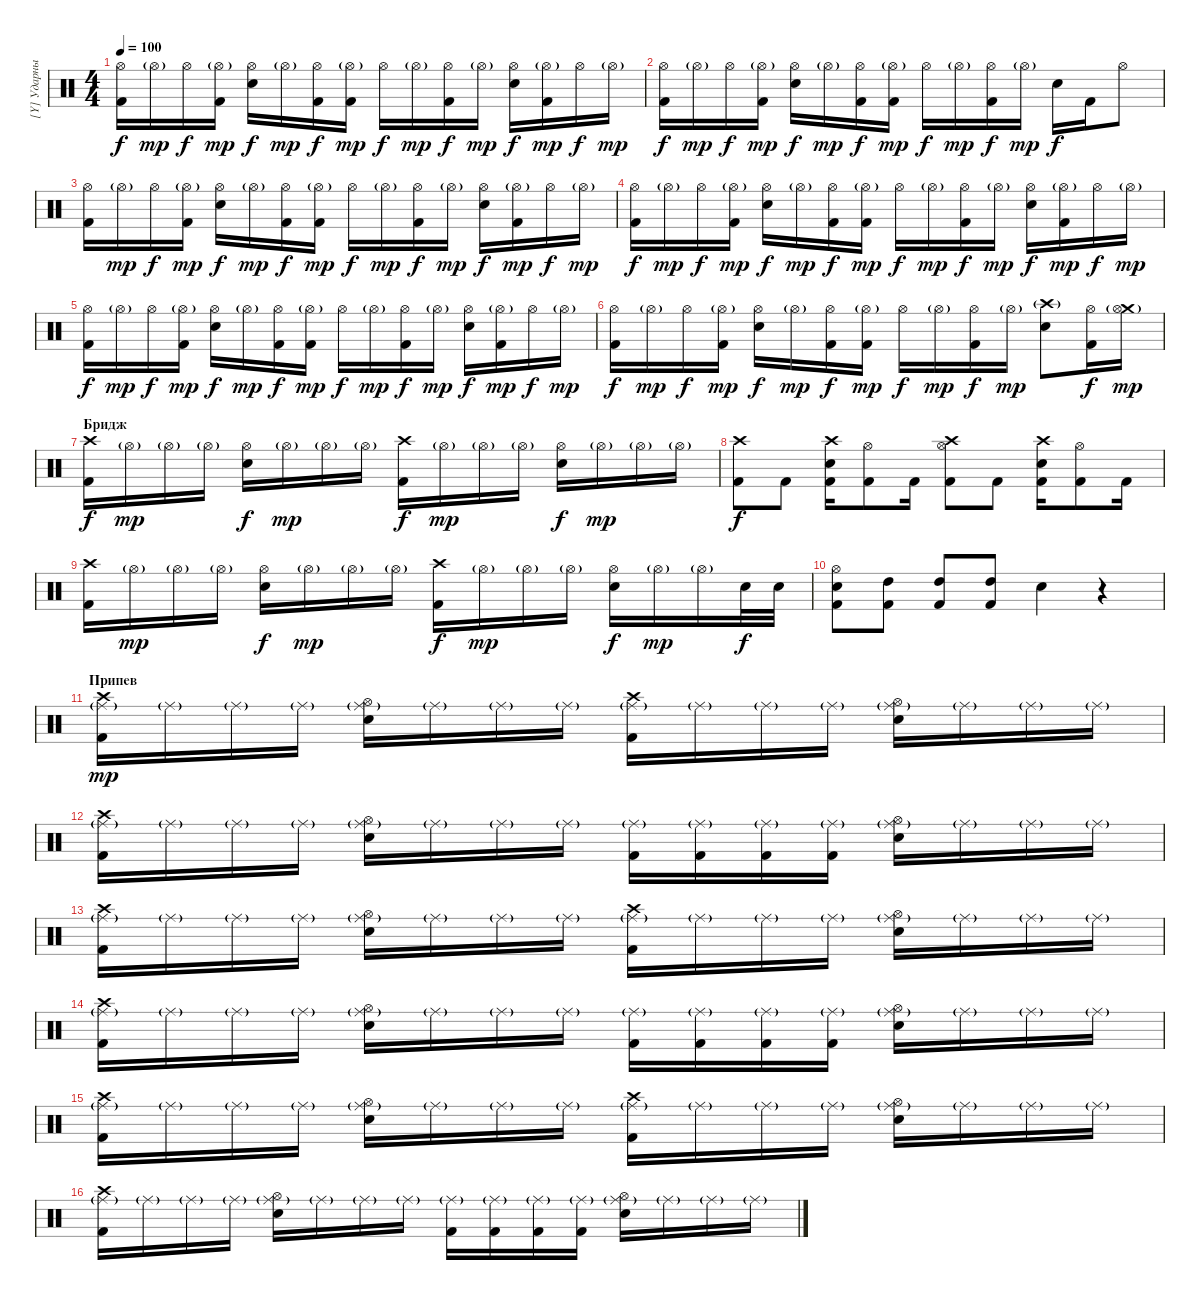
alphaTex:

\track ("[Y] Ударные [Stewart]" "[Y] Ударны") {instrument percussion}
\staff {score}
\articulation defaults
\ts (4 4)
\tempo 100
\clef neutral
\ks c
("Hi-Hat (open)" "Kick (hit) 2").16{dy f} "Hi-Hat (open)"{g}.16{dy mp} "Hi-Hat (open)".16{dy f} ("Hi-Hat (open)"{g} "Kick (hit) 2").16{dy mp} ("Hi-Hat (open)" "Electric Snare (hit)").16{dy f} "Hi-Hat (open)"{g}.16{dy mp} ("Hi-Hat (open)" "Kick (hit) 2").16{dy f} ("Hi-Hat (open)"{g} "Kick (hit) 2").16{dy mp} "Hi-Hat (open)".16{dy f} "Hi-Hat (open)"{g}.16{dy mp} ("Hi-Hat (open)" "Kick (hit) 2").16{dy f} "Hi-Hat (open)"{g}.16{dy mp} ("Hi-Hat (open)" "Electric Snare (hit)").16{dy f} ("Hi-Hat (open)"{g} "Kick (hit) 2").16{dy mp} "Hi-Hat (open)".16{dy f} "Hi-Hat (open)"{g}.16{dy mp} |
("Hi-Hat (open)" "Kick (hit) 2").16{dy f} "Hi-Hat (open)"{g}.16{dy mp} "Hi-Hat (open)".16{dy f} ("Hi-Hat (open)"{g} "Kick (hit) 2").16{dy mp} ("Hi-Hat (open)" "Electric Snare (hit)").16{dy f} "Hi-Hat (open)"{g}.16{dy mp} ("Hi-Hat (open)" "Kick (hit) 2").16{dy f} ("Hi-Hat (open)"{g} "Kick (hit) 2").16{dy mp} "Hi-Hat (open)".16{dy f} "Hi-Hat (open)"{g}.16{dy mp} ("Hi-Hat (open)" "Kick (hit) 2").16{dy f} "Hi-Hat (open)"{g}.16{dy mp} "Electric Snare (hit)".16{dy f} "Kick (hit) 2".16 "Hi-Hat (open)".8 |
("Hi-Hat (open)" "Kick (hit) 2").16 "Hi-Hat (open)"{g}.16{dy mp} "Hi-Hat (open)".16{dy f} ("Hi-Hat (open)"{g} "Kick (hit) 2").16{dy mp} ("Hi-Hat (open)" "Electric Snare (hit)").16{dy f} "Hi-Hat (open)"{g}.16{dy mp} ("Hi-Hat (open)" "Kick (hit) 2").16{dy f} ("Hi-Hat (open)"{g} "Kick (hit) 2").16{dy mp} "Hi-Hat (open)".16{dy f} "Hi-Hat (open)"{g}.16{dy mp} ("Hi-Hat (open)" "Kick (hit) 2").16{dy f} "Hi-Hat (open)"{g}.16{dy mp} ("Hi-Hat (open)" "Electric Snare (hit)").16{dy f} ("Hi-Hat (open)"{g} "Kick (hit) 2").16{dy mp} "Hi-Hat (open)".16{dy f} "Hi-Hat (open)"{g}.16{dy mp} |
("Hi-Hat (open)" "Kick (hit) 2").16{dy f} "Hi-Hat (open)"{g}.16{dy mp} "Hi-Hat (open)".16{dy f} ("Hi-Hat (open)"{g} "Kick (hit) 2").16{dy mp} ("Hi-Hat (open)" "Electric Snare (hit)").16{dy f} "Hi-Hat (open)"{g}.16{dy mp} ("Hi-Hat (open)" "Kick (hit) 2").16{dy f} ("Hi-Hat (open)"{g} "Kick (hit) 2").16{dy mp} "Hi-Hat (open)".16{dy f} "Hi-Hat (open)"{g}.16{dy mp} ("Hi-Hat (open)" "Kick (hit) 2").16{dy f} "Hi-Hat (open)"{g}.16{dy mp} ("Hi-Hat (open)" "Electric Snare (hit)").16{dy f} ("Hi-Hat (open)"{g} "Kick (hit) 2").16{dy mp} "Hi-Hat (open)".16{dy f} "Hi-Hat (open)"{g}.16{dy mp} |
("Hi-Hat (open)" "Kick (hit) 2").16{dy f} "Hi-Hat (open)"{g}.16{dy mp} "Hi-Hat (open)".16{dy f} ("Hi-Hat (open)"{g} "Kick (hit) 2").16{dy mp} ("Hi-Hat (open)" "Electric Snare (hit)").16{dy f} "Hi-Hat (open)"{g}.16{dy mp} ("Hi-Hat (open)" "Kick (hit) 2").16{dy f} ("Hi-Hat (open)"{g} "Kick (hit) 2").16{dy mp} "Hi-Hat (open)".16{dy f} "Hi-Hat (open)"{g}.16{dy mp} ("Hi-Hat (open)" "Kick (hit) 2").16{dy f} "Hi-Hat (open)"{g}.16{dy mp} ("Hi-Hat (open)" "Electric Snare (hit)").16{dy f} ("Hi-Hat (open)"{g} "Kick (hit) 2").16{dy mp} "Hi-Hat (open)".16{dy f} "Hi-Hat (open)"{g}.16{dy mp} |
("Hi-Hat (open)" "Kick (hit) 2").16{dy f} "Hi-Hat (open)"{g}.16{dy mp} "Hi-Hat (open)".16{dy f} ("Hi-Hat (open)"{g} "Kick (hit) 2").16{dy mp} ("Hi-Hat (open)" "Electric Snare (hit)").16{dy f} "Hi-Hat (open)"{g}.16{dy mp} ("Hi-Hat (open)" "Kick (hit) 2").16{dy f} ("Hi-Hat (open)"{g} "Kick (hit) 2").16{dy mp} "Hi-Hat (open)".16{dy f} "Hi-Hat (open)"{g}.16{dy mp} ("Hi-Hat (open)" "Kick (hit) 2").16{dy f} "Hi-Hat (open)"{g}.16{dy mp} ("Crash high (hit)"{g} "Electric Snare (hit)").8 ("Hi-Hat (open)" "Kick (hit) 2").16{dy f} ("Crash medium (hit)"{g} "Hi-Hat (open)"{g}).16{dy mp} |
\section ("" "Бридж")
("Crash high (hit)" "Kick (hit) 2").16{dy f} "Hi-Hat (open)"{g}.16{dy mp} "Hi-Hat (open)"{g}.16 "Hi-Hat (open)"{g}.16 ("Hi-Hat (open)" "Electric Snare (hit)").16{dy f} "Hi-Hat (open)"{g}.16{dy mp} "Hi-Hat (open)"{g}.16 "Hi-Hat (open)"{g}.16 ("Crash high (hit)" "Kick (hit) 2").16{dy f} "Hi-Hat (open)"{g}.16{dy mp} "Hi-Hat (open)"{g}.16 "Hi-Hat (open)"{g}.16 ("Hi-Hat (open)" "Electric Snare (hit)").16{dy f} "Hi-Hat (open)"{g}.16{dy mp} "Hi-Hat (open)"{g}.16 "Hi-Hat (open)"{g}.16 |
("Crash high (hit)" "Kick (hit) 2").8{dy f} "Kick (hit) 2".8 ("Crash high (hit)" "Electric Snare (hit)" "Kick (hit) 2").16 ("Hi-Hat (open)" "Kick (hit) 2").8 "Kick (hit) 2".16 ("Crash high (hit)" "Hi-Hat (open)" "Kick (hit) 2").8 "Kick (hit) 2".8 ("Crash high (hit)" "Electric Snare (hit)" "Kick (hit) 2").16 ("Hi-Hat (open)" "Kick (hit) 2").8 "Kick (hit) 2".16 |
("Crash high (hit)" "Kick (hit) 2").16 "Hi-Hat (open)"{g}.16{dy mp} "Hi-Hat (open)"{g}.16 "Hi-Hat (open)"{g}.16 ("Hi-Hat (open)" "Electric Snare (hit)").16{dy f} "Hi-Hat (open)"{g}.16{dy mp} "Hi-Hat (open)"{g}.16 "Hi-Hat (open)"{g}.16 ("Crash high (hit)" "Kick (hit) 2").16{dy f} "Hi-Hat (open)"{g}.16{dy mp} "Hi-Hat (open)"{g}.16 "Hi-Hat (open)"{g}.16 ("Hi-Hat (open)" "Electric Snare (hit)").16{dy f} "Hi-Hat (open)"{g}.16{dy mp} "Hi-Hat (open)"{g}.16 "Electric Snare (hit)".32{dy f} "Electric Snare (hit)".32 |
("Hi-Hat (open)" "Electric Snare (hit)" "Kick (hit) 2").8 ("High Tom (hit)" "Kick (hit) 2").8 ("High Tom (hit)" "Kick (hit) 2").8 ("High Tom (hit)" "Kick (hit) 2").8 "Electric Snare (hit)".4 r.4 |
\section ("" "Припев")
("Crash high (hit)" "Ride (middle)"{g} "Kick (hit) 2").16{dy mp} "Ride (middle)"{g}.16 "Ride (middle)"{g}.16 "Ride (middle)"{g}.16 ("Ride (middle)"{g} "Hi-Hat (open)" "Electric Snare (hit)").16 "Ride (middle)"{g}.16 "Ride (middle)"{g}.16 "Ride (middle)"{g}.16 ("Crash high (hit)" "Ride (middle)"{g} "Kick (hit) 2").16 "Ride (middle)"{g}.16 "Ride (middle)"{g}.16 "Ride (middle)"{g}.16 ("Ride (middle)"{g} "Hi-Hat (open)" "Electric Snare (hit)").16 "Ride (middle)"{g}.16 "Ride (middle)"{g}.16 "Ride (middle)"{g}.16 |
("Crash high (hit)" "Ride (middle)"{g} "Kick (hit) 2").16 "Ride (middle)"{g}.16 "Ride (middle)"{g}.16 "Ride (middle)"{g}.16 ("Ride (middle)"{g} "Hi-Hat (open)" "Electric Snare (hit)").16 "Ride (middle)"{g}.16 "Ride (middle)"{g}.16 "Ride (middle)"{g}.16 ("Ride (middle)"{g} "Kick (hit) 2").16 ("Ride (middle)"{g} "Kick (hit) 2").16 ("Ride (middle)"{g} "Kick (hit) 2").16 ("Ride (middle)"{g} "Kick (hit) 2").16 ("Ride (middle)"{g} "Hi-Hat (open)" "Electric Snare (hit)").16 "Ride (middle)"{g}.16 "Ride (middle)"{g}.16 "Ride (middle)"{g}.16 |
("Crash high (hit)" "Ride (middle)"{g} "Kick (hit) 2").16 "Ride (middle)"{g}.16 "Ride (middle)"{g}.16 "Ride (middle)"{g}.16 ("Ride (middle)"{g} "Hi-Hat (open)" "Electric Snare (hit)").16 "Ride (middle)"{g}.16 "Ride (middle)"{g}.16 "Ride (middle)"{g}.16 ("Crash high (hit)" "Ride (middle)"{g} "Kick (hit) 2").16 "Ride (middle)"{g}.16 "Ride (middle)"{g}.16 "Ride (middle)"{g}.16 ("Ride (middle)"{g} "Hi-Hat (open)" "Electric Snare (hit)").16 "Ride (middle)"{g}.16 "Ride (middle)"{g}.16 "Ride (middle)"{g}.16 |
("Crash high (hit)" "Ride (middle)"{g} "Kick (hit) 2").16 "Ride (middle)"{g}.16 "Ride (middle)"{g}.16 "Ride (middle)"{g}.16 ("Ride (middle)"{g} "Hi-Hat (open)" "Electric Snare (hit)").16 "Ride (middle)"{g}.16 "Ride (middle)"{g}.16 "Ride (middle)"{g}.16 ("Ride (middle)"{g} "Kick (hit) 2").16 ("Ride (middle)"{g} "Kick (hit) 2").16 ("Ride (middle)"{g} "Kick (hit) 2").16 ("Ride (middle)"{g} "Kick (hit) 2").16 ("Ride (middle)"{g} "Hi-Hat (open)" "Electric Snare (hit)").16 "Ride (middle)"{g}.16 "Ride (middle)"{g}.16 "Ride (middle)"{g}.16 |
("Crash high (hit)" "Ride (middle)"{g} "Kick (hit) 2").16 "Ride (middle)"{g}.16 "Ride (middle)"{g}.16 "Ride (middle)"{g}.16 ("Ride (middle)"{g} "Hi-Hat (open)" "Electric Snare (hit)").16 "Ride (middle)"{g}.16 "Ride (middle)"{g}.16 "Ride (middle)"{g}.16 ("Crash high (hit)" "Ride (middle)"{g} "Kick (hit) 2").16 "Ride (middle)"{g}.16 "Ride (middle)"{g}.16 "Ride (middle)"{g}.16 ("Ride (middle)"{g} "Hi-Hat (open)" "Electric Snare (hit)").16 "Ride (middle)"{g}.16 "Ride (middle)"{g}.16 "Ride (middle)"{g}.16 |
("Crash high (hit)" "Ride (middle)"{g} "Kick (hit) 2").16 "Ride (middle)"{g}.16 "Ride (middle)"{g}.16 "Ride (middle)"{g}.16 ("Ride (middle)"{g} "Hi-Hat (open)" "Electric Snare (hit)").16 "Ride (middle)"{g}.16 "Ride (middle)"{g}.16 "Ride (middle)"{g}.16 ("Ride (middle)"{g} "Kick (hit) 2").16 ("Ride (middle)"{g} "Kick (hit) 2").16 ("Ride (middle)"{g} "Kick (hit) 2").16 ("Ride (middle)"{g} "Kick (hit) 2").16 ("Ride (middle)"{g} "Hi-Hat (open)" "Electric Snare (hit)").16 "Ride (middle)"{g}.16 "Ride (middle)"{g}.16 "Ride (middle)"{g}.16
